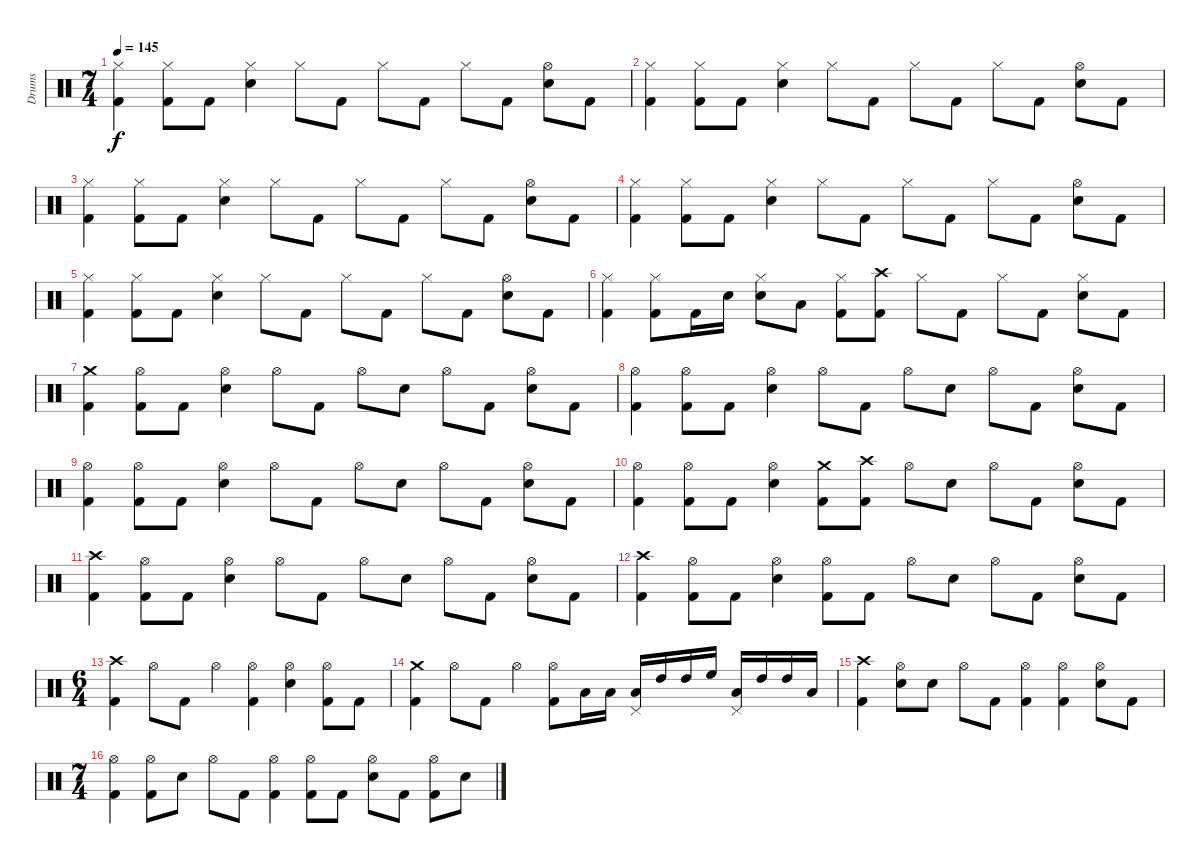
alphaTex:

\track ("Drums" "Drums") {instrument percussion}
\staff {score}
\articulation defaults
\ts (7 4)
\tempo 145
\clef neutral
\ks c
("Hi-Hat (closed)" "Kick (hit) 2").4{dy f} ("Hi-Hat (closed)" "Kick (hit) 2").8 "Kick (hit) 2".8 ("Hi-Hat (closed)" "Snare (hit) 2").4 "Hi-Hat (closed)".8 "Kick (hit) 2".8 "Hi-Hat (closed)".8 "Kick (hit) 2".8 "Hi-Hat (closed)".8 "Kick (hit) 2".8 ("Hi-Hat (open)" "Snare (hit) 2").8 "Kick (hit) 2".8 |
("Hi-Hat (closed)" "Kick (hit) 2").4 ("Hi-Hat (closed)" "Kick (hit) 2").8 "Kick (hit) 2".8 ("Hi-Hat (closed)" "Snare (hit) 2").4 "Hi-Hat (closed)".8 "Kick (hit) 2".8 "Hi-Hat (closed)".8 "Kick (hit) 2".8 "Hi-Hat (closed)".8 "Kick (hit) 2".8 ("Hi-Hat (open)" "Snare (hit) 2").8 "Kick (hit) 2".8 |
("Hi-Hat (closed)" "Kick (hit) 2").4 ("Hi-Hat (closed)" "Kick (hit) 2").8 "Kick (hit) 2".8 ("Hi-Hat (closed)" "Snare (hit) 2").4 "Hi-Hat (closed)".8 "Kick (hit) 2".8 "Hi-Hat (closed)".8 "Kick (hit) 2".8 "Hi-Hat (closed)".8 "Kick (hit) 2".8 ("Hi-Hat (open)" "Snare (hit) 2").8 "Kick (hit) 2".8 |
("Hi-Hat (closed)" "Kick (hit) 2").4 ("Hi-Hat (closed)" "Kick (hit) 2").8 "Kick (hit) 2".8 ("Hi-Hat (closed)" "Snare (hit) 2").4 "Hi-Hat (closed)".8 "Kick (hit) 2".8 "Hi-Hat (closed)".8 "Kick (hit) 2".8 "Hi-Hat (closed)".8 "Kick (hit) 2".8 ("Hi-Hat (open)" "Snare (hit) 2").8 "Kick (hit) 2".8 |
("Hi-Hat (closed)" "Kick (hit) 2").4 ("Hi-Hat (closed)" "Kick (hit) 2").8 "Kick (hit) 2".8 ("Hi-Hat (closed)" "Snare (hit) 2").4 "Hi-Hat (closed)".8 "Kick (hit) 2".8 "Hi-Hat (closed)".8 "Kick (hit) 2".8 "Hi-Hat (closed)".8 "Kick (hit) 2".8 ("Hi-Hat (open)" "Snare (hit) 2").8 "Kick (hit) 2".8 |
("Hi-Hat (closed)" "Kick (hit) 2").4 ("Hi-Hat (closed)" "Kick (hit) 2").8 "Kick (hit) 2".16 "Snare (hit) 2".16 ("Hi-Hat (closed)" "Snare (hit) 2").8 "Low Tom (hit)".8 ("Hi-Hat (closed)" "Kick (hit) 2").8 ("Crash high (hit)" "Kick (hit) 2").8 "Hi-Hat (closed)".8 "Kick (hit) 2".8 "Hi-Hat (closed)".8 "Kick (hit) 2".8 ("Hi-Hat (closed)" "Snare (hit) 2").8 "Kick (hit) 2".8 |
("Crash medium (hit)" "Kick (hit) 2").4 ("Hi-Hat (open)" "Kick (hit) 2").8 "Kick (hit) 2".8 ("Hi-Hat (open)" "Snare (hit) 2").4 "Hi-Hat (open)".8 "Kick (hit) 2".8 "Hi-Hat (open)".8 "Snare (hit) 2".8 "Hi-Hat (open)".8 "Kick (hit) 2".8 ("Hi-Hat (open)" "Snare (hit) 2").8 "Kick (hit) 2".8 |
("Hi-Hat (open)" "Kick (hit) 2").4 ("Hi-Hat (open)" "Kick (hit) 2").8 "Kick (hit) 2".8 ("Hi-Hat (open)" "Snare (hit) 2").4 "Hi-Hat (open)".8 "Kick (hit) 2".8 "Hi-Hat (open)".8 "Snare (hit) 2".8 "Hi-Hat (open)".8 "Kick (hit) 2".8 ("Hi-Hat (open)" "Snare (hit) 2").8 "Kick (hit) 2".8 |
("Hi-Hat (open)" "Kick (hit) 2").4 ("Hi-Hat (open)" "Kick (hit) 2").8 "Kick (hit) 2".8 ("Hi-Hat (open)" "Snare (hit) 2").4 "Hi-Hat (open)".8 "Kick (hit) 2".8 "Hi-Hat (open)".8 "Snare (hit) 2".8 "Hi-Hat (open)".8 "Kick (hit) 2".8 ("Hi-Hat (open)" "Snare (hit) 2").8 "Kick (hit) 2".8 |
("Hi-Hat (open)" "Kick (hit) 2").4 ("Hi-Hat (open)" "Kick (hit) 2").8 "Kick (hit) 2".8 ("Hi-Hat (open)" "Snare (hit) 2").4 ("Crash medium (hit)" "Kick (hit) 2").8 ("Crash high (hit)" "Kick (hit) 2").8 "Hi-Hat (open)".8 "Snare (hit) 2".8 "Hi-Hat (open)".8 "Kick (hit) 2".8 ("Hi-Hat (open)" "Snare (hit) 2").8 "Kick (hit) 2".8 |
("Crash high (hit)" "Kick (hit) 2").4 ("Hi-Hat (open)" "Kick (hit) 2").8 "Kick (hit) 2".8 ("Hi-Hat (open)" "Snare (hit) 2").4 "Hi-Hat (open)".8 "Kick (hit) 2".8 "Hi-Hat (open)".8 "Snare (hit) 2".8 "Hi-Hat (open)".8 "Kick (hit) 2".8 ("Hi-Hat (open)" "Snare (hit) 2").8 "Kick (hit) 2".8 |
("Crash high (hit)" "Kick (hit) 2").4 ("Hi-Hat (open)" "Kick (hit) 2").8 "Kick (hit) 2".8 ("Hi-Hat (open)" "Snare (hit) 2").4 ("Hi-Hat (open)" "Kick (hit) 2").8 "Kick (hit) 2".8 "Hi-Hat (open)".8 "Snare (hit) 2".8 "Hi-Hat (open)".8 "Kick (hit) 2".8 ("Hi-Hat (open)" "Snare (hit) 2").8 "Kick (hit) 2".8 |
\ts (6 4)
("Crash high (hit)" "Kick (hit) 2").4 "Hi-Hat (open)".8 "Kick (hit) 2".8 "Hi-Hat (open)".4 ("Hi-Hat (open)" "Kick (hit) 2").4 ("Hi-Hat (open)" "Snare (hit) 2").4 ("Hi-Hat (open)" "Kick (hit) 2").8 "Kick (hit) 2".8 |
("Crash medium (hit)" "Kick (hit) 2").4 "Hi-Hat (open)".8 "Kick (hit) 2".8 "Hi-Hat (open)".4 ("Hi-Hat (open)" "Kick (hit) 2").8 "Low Tom (hit)".16 "Low Tom (hit)".16 ("Pedal Hi-Hat (hit)" "Low Tom (hit)").16 "High Tom (hit)".16 "High Tom (hit)".16 "High Floor Tom (hit)".16 ("Pedal Hi-Hat (hit)" "Low Tom (hit)").16 "High Tom (hit)".16 "High Tom (hit)".16 "Low Tom (hit)".16 |
("Crash high (hit)" "Kick (hit) 2").4 ("Hi-Hat (open)" "Snare (hit) 2").8 "Snare (hit) 2".8 "Hi-Hat (open)".8 "Kick (hit) 2".8 ("Hi-Hat (open)" "Kick (hit) 2").4 ("Hi-Hat (open)" "Kick (hit) 2").4 ("Hi-Hat (open)" "Snare (hit) 2").8 "Kick (hit) 2".8 |
\ts (7 4)
("Hi-Hat (open)" "Kick (hit) 2").4 ("Hi-Hat (open)" "Kick (hit) 2").8 "Snare (hit) 2".8 "Hi-Hat (open)".8 "Kick (hit) 2".8 ("Hi-Hat (open)" "Kick (hit) 2").4 ("Hi-Hat (open)" "Kick (hit) 2").8 "Kick (hit) 2".8 ("Hi-Hat (open)" "Snare (hit) 2").8 "Kick (hit) 2".8 ("Hi-Hat (open)" "Kick (hit) 2").8 "Snare (hit) 2".8
